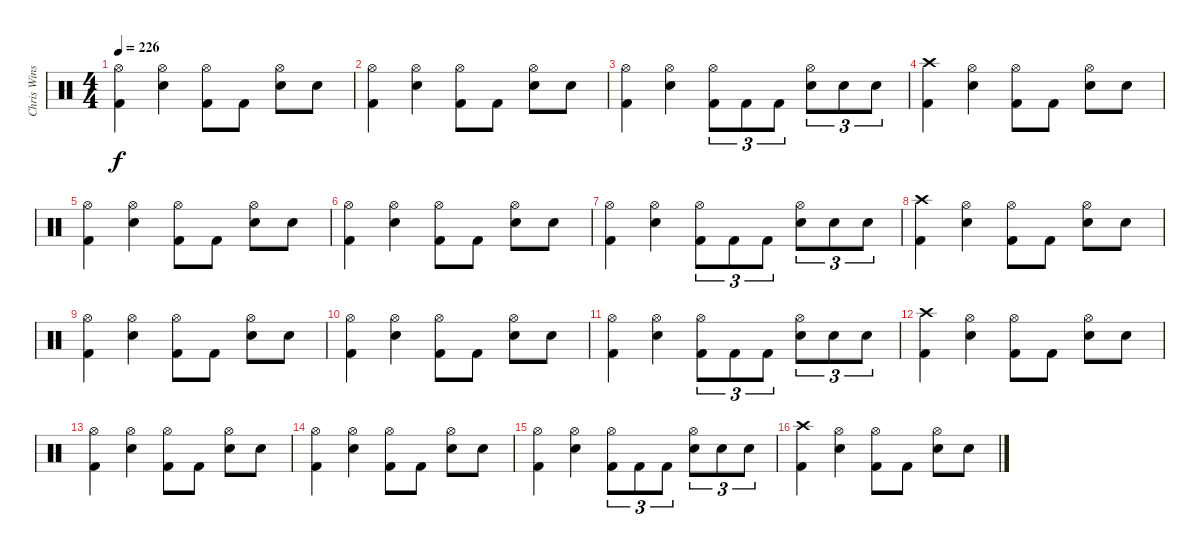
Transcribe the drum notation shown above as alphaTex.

\track ("Chris Winship (Drums)" "Chris Wins") {instrument percussion}
\staff {score}
\articulation defaults
\ts (4 4)
\tempo 226
\clef neutral
\ks c
("Hi-Hat (open)" "Kick (hit) 2").4{dy f} ("Hi-Hat (open)" "Electric Snare (hit)").4 ("Hi-Hat (open)" "Kick (hit) 2").8 "Kick (hit) 2".8 ("Hi-Hat (open)" "Electric Snare (hit)").8 "Electric Snare (hit)".8 |
("Hi-Hat (open)" "Kick (hit) 2").4 ("Hi-Hat (open)" "Electric Snare (hit)").4 ("Hi-Hat (open)" "Kick (hit) 2").8 "Kick (hit) 2".8 ("Hi-Hat (open)" "Electric Snare (hit)").8 "Electric Snare (hit)".8 |
("Hi-Hat (open)" "Kick (hit) 2").4 ("Hi-Hat (open)" "Electric Snare (hit)").4 ("Hi-Hat (open)" "Kick (hit) 2").8{tu (3 2)} "Kick (hit) 2".8{tu (3 2)} "Kick (hit) 2".8{tu (3 2)} ("Hi-Hat (open)" "Electric Snare (hit)").8{tu (3 2)} "Electric Snare (hit)".8{tu (3 2)} "Electric Snare (hit)".8{tu (3 2)} |
("Crash high (hit)" "Kick (hit) 2").4 ("Hi-Hat (open)" "Electric Snare (hit)").4 ("Hi-Hat (open)" "Kick (hit) 2").8 "Kick (hit) 2".8 ("Hi-Hat (open)" "Electric Snare (hit)").8 "Electric Snare (hit)".8 |
("Hi-Hat (open)" "Kick (hit) 2").4 ("Hi-Hat (open)" "Electric Snare (hit)").4 ("Hi-Hat (open)" "Kick (hit) 2").8 "Kick (hit) 2".8 ("Hi-Hat (open)" "Electric Snare (hit)").8 "Electric Snare (hit)".8 |
("Hi-Hat (open)" "Kick (hit) 2").4 ("Hi-Hat (open)" "Electric Snare (hit)").4 ("Hi-Hat (open)" "Kick (hit) 2").8 "Kick (hit) 2".8 ("Hi-Hat (open)" "Electric Snare (hit)").8 "Electric Snare (hit)".8 |
("Hi-Hat (open)" "Kick (hit) 2").4 ("Hi-Hat (open)" "Electric Snare (hit)").4 ("Hi-Hat (open)" "Kick (hit) 2").8{tu (3 2)} "Kick (hit) 2".8{tu (3 2)} "Kick (hit) 2".8{tu (3 2)} ("Hi-Hat (open)" "Electric Snare (hit)").8{tu (3 2)} "Electric Snare (hit)".8{tu (3 2)} "Electric Snare (hit)".8{tu (3 2)} |
("Crash high (hit)" "Kick (hit) 2").4 ("Hi-Hat (open)" "Electric Snare (hit)").4 ("Hi-Hat (open)" "Kick (hit) 2").8 "Kick (hit) 2".8 ("Hi-Hat (open)" "Electric Snare (hit)").8 "Electric Snare (hit)".8 |
("Hi-Hat (open)" "Kick (hit) 2").4 ("Hi-Hat (open)" "Electric Snare (hit)").4 ("Hi-Hat (open)" "Kick (hit) 2").8 "Kick (hit) 2".8 ("Hi-Hat (open)" "Electric Snare (hit)").8 "Electric Snare (hit)".8 |
("Hi-Hat (open)" "Kick (hit) 2").4 ("Hi-Hat (open)" "Electric Snare (hit)").4 ("Hi-Hat (open)" "Kick (hit) 2").8 "Kick (hit) 2".8 ("Hi-Hat (open)" "Electric Snare (hit)").8 "Electric Snare (hit)".8 |
("Hi-Hat (open)" "Kick (hit) 2").4 ("Hi-Hat (open)" "Electric Snare (hit)").4 ("Hi-Hat (open)" "Kick (hit) 2").8{tu (3 2)} "Kick (hit) 2".8{tu (3 2)} "Kick (hit) 2".8{tu (3 2)} ("Hi-Hat (open)" "Electric Snare (hit)").8{tu (3 2)} "Electric Snare (hit)".8{tu (3 2)} "Electric Snare (hit)".8{tu (3 2)} |
("Crash high (hit)" "Kick (hit) 2").4 ("Hi-Hat (open)" "Electric Snare (hit)").4 ("Hi-Hat (open)" "Kick (hit) 2").8 "Kick (hit) 2".8 ("Hi-Hat (open)" "Electric Snare (hit)").8 "Electric Snare (hit)".8 |
("Hi-Hat (open)" "Kick (hit) 2").4 ("Hi-Hat (open)" "Electric Snare (hit)").4 ("Hi-Hat (open)" "Kick (hit) 2").8 "Kick (hit) 2".8 ("Hi-Hat (open)" "Electric Snare (hit)").8 "Electric Snare (hit)".8 |
("Hi-Hat (open)" "Kick (hit) 2").4 ("Hi-Hat (open)" "Electric Snare (hit)").4 ("Hi-Hat (open)" "Kick (hit) 2").8 "Kick (hit) 2".8 ("Hi-Hat (open)" "Electric Snare (hit)").8 "Electric Snare (hit)".8 |
("Hi-Hat (open)" "Kick (hit) 2").4 ("Hi-Hat (open)" "Electric Snare (hit)").4 ("Hi-Hat (open)" "Kick (hit) 2").8{tu (3 2)} "Kick (hit) 2".8{tu (3 2)} "Kick (hit) 2".8{tu (3 2)} ("Hi-Hat (open)" "Electric Snare (hit)").8{tu (3 2)} "Electric Snare (hit)".8{tu (3 2)} "Electric Snare (hit)".8{tu (3 2)} |
("Crash high (hit)" "Kick (hit) 2").4 ("Hi-Hat (open)" "Electric Snare (hit)").4 ("Hi-Hat (open)" "Kick (hit) 2").8 "Kick (hit) 2".8 ("Hi-Hat (open)" "Electric Snare (hit)").8 "Electric Snare (hit)".8
